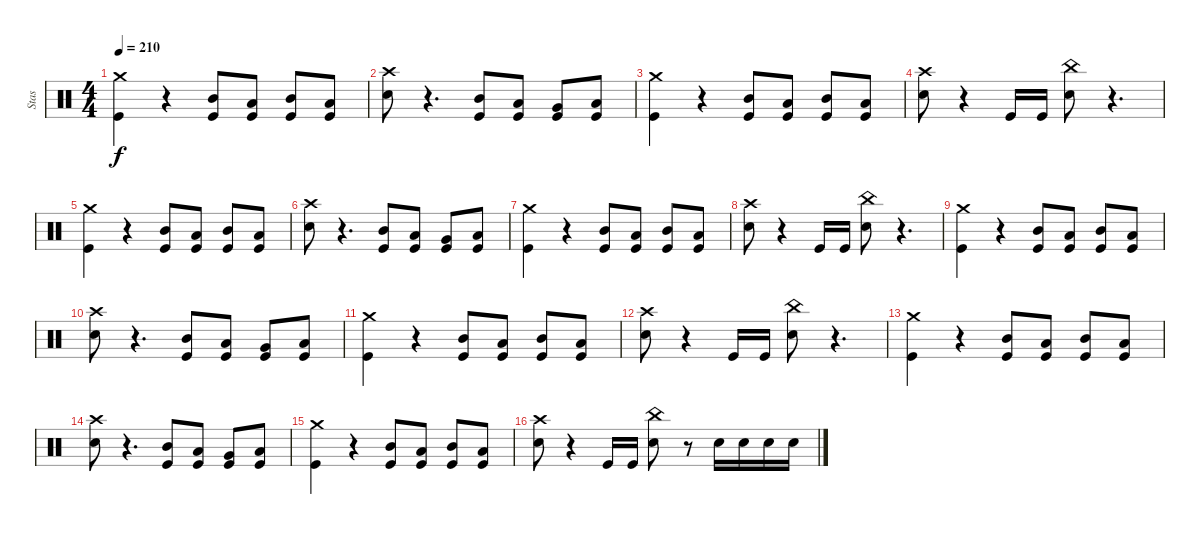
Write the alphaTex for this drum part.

\track ("Stas" "Stas") {instrument percussion}
\staff {score}
\articulation defaults
\ts (4 4)
\tempo 210
\clef neutral
\ks c
("Crash medium (hit)" "Kick (hit)").4{dy f} r.4 ("Mid Tom (hit)" "Kick (hit)").8 ("Low Tom (hit)" "Kick (hit)").8 ("Mid Tom (hit)" "Kick (hit)").8 ("Low Tom (hit)" "Kick (hit)").8 |
("Crash high (hit)" "Electric Snare (hit)").8 r.4{d} ("Mid Tom (hit)" "Kick (hit)").8 ("Low Tom (hit)" "Kick (hit)").8 ("Very Low Tom (hit)" "Kick (hit)").8 ("Low Tom (hit)" "Kick (hit)").8 |
("Crash medium (hit)" "Kick (hit)").4 r.4 ("Mid Tom (hit)" "Kick (hit)").8 ("Low Tom (hit)" "Kick (hit)").8 ("Mid Tom (hit)" "Kick (hit)").8 ("Low Tom (hit)" "Kick (hit)").8 |
("Crash high (hit)" "Electric Snare (hit)").8 r.4 "Kick (hit)".16 "Kick (hit)".16 ("Electric Snare (hit)" "China (hit)").8 r.4{d} |
("Crash medium (hit)" "Kick (hit)").4 r.4 ("Mid Tom (hit)" "Kick (hit)").8 ("Low Tom (hit)" "Kick (hit)").8 ("Mid Tom (hit)" "Kick (hit)").8 ("Low Tom (hit)" "Kick (hit)").8 |
("Crash high (hit)" "Electric Snare (hit)").8 r.4{d} ("Mid Tom (hit)" "Kick (hit)").8 ("Low Tom (hit)" "Kick (hit)").8 ("Very Low Tom (hit)" "Kick (hit)").8 ("Low Tom (hit)" "Kick (hit)").8 |
("Crash medium (hit)" "Kick (hit)").4 r.4 ("Mid Tom (hit)" "Kick (hit)").8 ("Low Tom (hit)" "Kick (hit)").8 ("Mid Tom (hit)" "Kick (hit)").8 ("Low Tom (hit)" "Kick (hit)").8 |
("Crash high (hit)" "Electric Snare (hit)").8 r.4 "Kick (hit)".16 "Kick (hit)".16 ("Electric Snare (hit)" "China (hit)").8 r.4{d} |
("Crash medium (hit)" "Kick (hit)").4 r.4 ("Mid Tom (hit)" "Kick (hit)").8 ("Low Tom (hit)" "Kick (hit)").8 ("Mid Tom (hit)" "Kick (hit)").8 ("Low Tom (hit)" "Kick (hit)").8 |
("Crash high (hit)" "Electric Snare (hit)").8 r.4{d} ("Mid Tom (hit)" "Kick (hit)").8 ("Low Tom (hit)" "Kick (hit)").8 ("Very Low Tom (hit)" "Kick (hit)").8 ("Low Tom (hit)" "Kick (hit)").8 |
("Crash medium (hit)" "Kick (hit)").4 r.4 ("Mid Tom (hit)" "Kick (hit)").8 ("Low Tom (hit)" "Kick (hit)").8 ("Mid Tom (hit)" "Kick (hit)").8 ("Low Tom (hit)" "Kick (hit)").8 |
("Crash high (hit)" "Electric Snare (hit)").8 r.4 "Kick (hit)".16 "Kick (hit)".16 ("Electric Snare (hit)" "China (hit)").8 r.4{d} |
("Crash medium (hit)" "Kick (hit)").4 r.4 ("Mid Tom (hit)" "Kick (hit)").8 ("Low Tom (hit)" "Kick (hit)").8 ("Mid Tom (hit)" "Kick (hit)").8 ("Low Tom (hit)" "Kick (hit)").8 |
("Crash high (hit)" "Electric Snare (hit)").8 r.4{d} ("Mid Tom (hit)" "Kick (hit)").8 ("Low Tom (hit)" "Kick (hit)").8 ("Very Low Tom (hit)" "Kick (hit)").8 ("Low Tom (hit)" "Kick (hit)").8 |
("Crash medium (hit)" "Kick (hit)").4 r.4 ("Mid Tom (hit)" "Kick (hit)").8 ("Low Tom (hit)" "Kick (hit)").8 ("Mid Tom (hit)" "Kick (hit)").8 ("Low Tom (hit)" "Kick (hit)").8 |
("Crash high (hit)" "Electric Snare (hit)").8 r.4 "Kick (hit)".16 "Kick (hit)".16 ("Electric Snare (hit)" "China (hit)").8 r.8 "Electric Snare (hit)".16 "Electric Snare (hit)".16 "Electric Snare (hit)".16 "Electric Snare (hit)".16
